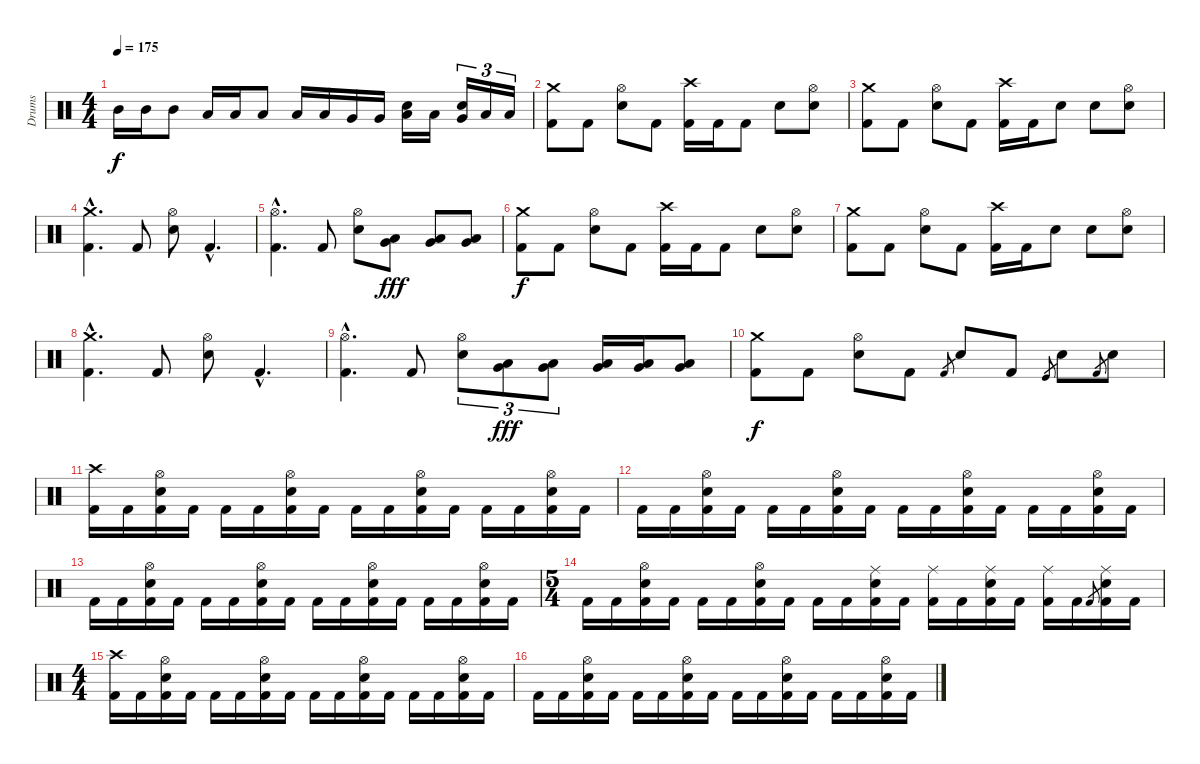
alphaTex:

\track ("Drums" "Drums") {instrument percussion}
\staff {score}
\articulation defaults
\ts (4 4)
\tempo 175
\clef neutral
\ks c "Mid Tom (hit)".16{dy f} "Mid Tom (hit)".16 "Mid Tom (hit)".8 "Low Tom (hit)".16 "Low Tom (hit)".16 "Low Tom (hit)".8 "Low Tom (hit)".16 "Low Tom (hit)".16 "Very Low Tom (hit)".16 "Very Low Tom (hit)".16
("Low Tom (hit)" "Snare (hit) 2").16 "Low Tom (hit)".16 ("Very Low Tom (hit)" "Snare (hit) 2").16{tu (3 2)} "Low Floor Tom (hit)".16{tu (3 2)} "Low Floor Tom (hit)".16{tu (3 2)} |
("Kick (hit) 2" "Crash medium (hit)").8 "Kick (hit) 2".8 ("Electric Snare (hit)" "Hi-Hat (open)").8 "Kick (hit) 2".8 ("Kick (hit) 2" "Crash high (hit)").16 "Kick (hit) 2".16 "Kick (hit) 2".8 "Electric Snare (hit)".8 ("Electric Snare (hit)" "Hi-Hat (open)").8 |
("Kick (hit) 2" "Crash medium (hit)").8 "Kick (hit) 2".8 ("Electric Snare (hit)" "Hi-Hat (open)").8 "Kick (hit) 2".8 ("Kick (hit) 2" "Crash high (hit)").16 "Kick (hit) 2".16 "Electric Snare (hit)".8 "Snare (hit) 2".8 ("Snare (hit) 2" "Hi-Hat (open)").8 |
("Kick (hit) 2"{hac} "Crash medium (hit)"{hac}).4{d} "Kick (hit) 2".8 ("Electric Snare (hit)" "Hi-Hat (open)").8 "Kick (hit) 2"{hac}.4{d} |
("Kick (hit) 2"{hac} "Hi-Hat (open)"{hac}).4{d} "Kick (hit) 2".8 ("Electric Snare (hit)" "Hi-Hat (open)").8 ("Low Tom (hit)" "Very Low Tom (hit)").8{dy fff} ("Low Tom (hit)" "Very Low Tom (hit)").8 ("Low Tom (hit)" "Very Low Tom (hit)").8 |
("Kick (hit) 2" "Crash medium (hit)").8{dy f} "Kick (hit) 2".8 ("Electric Snare (hit)" "Hi-Hat (open)").8 "Kick (hit) 2".8 ("Kick (hit) 2" "Crash high (hit)").16 "Kick (hit) 2".16 "Kick (hit) 2".8 "Electric Snare (hit)".8 ("Electric Snare (hit)" "Hi-Hat (open)").8 |
("Kick (hit) 2" "Crash medium (hit)").8 "Kick (hit) 2".8 ("Electric Snare (hit)" "Hi-Hat (open)").8 "Kick (hit) 2".8 ("Kick (hit) 2" "Crash high (hit)").16 "Kick (hit) 2".16 "Electric Snare (hit)".8 "Snare (hit) 2".8 ("Snare (hit) 2" "Hi-Hat (open)").8 |
("Kick (hit) 2"{hac} "Crash medium (hit)"{hac}).4{d} "Kick (hit) 2".8 ("Electric Snare (hit)" "Hi-Hat (open)").8 "Kick (hit) 2"{hac}.4{d} |
("Kick (hit) 2"{hac} "Hi-Hat (open)"{hac}).4{d} "Kick (hit) 2".8 ("Electric Snare (hit)" "Hi-Hat (open)").8{tu (3 2)} ("Low Tom (hit)" "Very Low Tom (hit)").8{tu (3 2) dy fff} ("Low Tom (hit)" "Very Low Tom (hit)").8{tu (3 2)} ("Low Tom (hit)" "Very Low Tom (hit)").16 ("Low Tom (hit)" "Very Low Tom (hit)").16 ("Low Tom (hit)" "Very Low Tom (hit)").8 |
("Kick (hit) 2" "Crash medium (hit)").8{dy f} "Kick (hit) 2".8 ("Electric Snare (hit)" "Hi-Hat (open)").8 "Kick (hit) 2".8 "Kick (hit) 2".8{gr} "Electric Snare (hit)".8 "Kick (hit) 2".8 "Kick (hit)".8{gr} "Snare (hit) 2".8 "Kick (hit) 2".8{gr} "Electric Snare (hit)".8 |
("Crash high (hit)" "Kick (hit) 2").16 "Kick (hit) 2".16 ("Hi-Hat (open)" "Electric Snare (hit)" "Kick (hit) 2").16 "Kick (hit) 2".16 "Kick (hit) 2".16 "Kick (hit) 2".16 ("Hi-Hat (open)" "Electric Snare (hit)" "Kick (hit) 2").16 "Kick (hit) 2".16 "Kick (hit) 2".16 "Kick (hit) 2".16 ("Hi-Hat (open)" "Electric Snare (hit)" "Kick (hit) 2").16 "Kick (hit) 2".16 "Kick (hit) 2".16 "Kick (hit) 2".16 ("Hi-Hat (open)" "Electric Snare (hit)" "Kick (hit) 2").16 "Kick (hit) 2".16 |
"Kick (hit) 2".16 "Kick (hit) 2".16 ("Hi-Hat (open)" "Electric Snare (hit)" "Kick (hit) 2").16 "Kick (hit) 2".16 "Kick (hit) 2".16 "Kick (hit) 2".16 ("Hi-Hat (open)" "Electric Snare (hit)" "Kick (hit) 2").16 "Kick (hit) 2".16 "Kick (hit) 2".16 "Kick (hit) 2".16 ("Hi-Hat (open)" "Electric Snare (hit)" "Kick (hit) 2").16 "Kick (hit) 2".16 "Kick (hit) 2".16 "Kick (hit) 2".16 ("Hi-Hat (open)" "Electric Snare (hit)" "Kick (hit) 2").16 "Kick (hit) 2".16 |
"Kick (hit) 2".16 "Kick (hit) 2".16 ("Hi-Hat (open)" "Electric Snare (hit)" "Kick (hit) 2").16 "Kick (hit) 2".16 "Kick (hit) 2".16 "Kick (hit) 2".16 ("Hi-Hat (open)" "Electric Snare (hit)" "Kick (hit) 2").16 "Kick (hit) 2".16 "Kick (hit) 2".16 "Kick (hit) 2".16 ("Hi-Hat (open)" "Electric Snare (hit)" "Kick (hit) 2").16 "Kick (hit) 2".16 "Kick (hit) 2".16 "Kick (hit) 2".16 ("Hi-Hat (open)" "Electric Snare (hit)" "Kick (hit) 2").16 "Kick (hit) 2".16 |
\ts (5 4)
"Kick (hit) 2".16 "Kick (hit) 2".16 ("Hi-Hat (open)" "Electric Snare (hit)" "Kick (hit) 2").16 "Kick (hit) 2".16 "Kick (hit) 2".16 "Kick (hit) 2".16 ("Hi-Hat (open)" "Electric Snare (hit)" "Kick (hit) 2").16 "Kick (hit) 2".16 "Kick (hit) 2".16 "Kick (hit) 2".16 ("Ride (middle)" "Electric Snare (hit)" "Kick (hit) 2").16 "Kick (hit) 2".16 ("Ride (middle)" "Kick (hit) 2").16 "Kick (hit) 2".16 ("Ride (middle)" "Electric Snare (hit)" "Kick (hit) 2").16 "Kick (hit) 2".16 ("Ride (middle)" "Kick (hit) 2").16 "Kick (hit) 2".16 "Kick (hit) 2".8{gr} ("Ride (middle)" "Electric Snare (hit)" "Kick (hit) 2").16 "Kick (hit) 2".16 |
\ts (4 4)
("Crash high (hit)" "Kick (hit) 2").16 "Kick (hit) 2".16 ("Hi-Hat (open)" "Electric Snare (hit)" "Kick (hit) 2").16 "Kick (hit) 2".16 "Kick (hit) 2".16 "Kick (hit) 2".16 ("Hi-Hat (open)" "Electric Snare (hit)" "Kick (hit) 2").16 "Kick (hit) 2".16 "Kick (hit) 2".16 "Kick (hit) 2".16 ("Hi-Hat (open)" "Electric Snare (hit)" "Kick (hit) 2").16 "Kick (hit) 2".16 "Kick (hit) 2".16 "Kick (hit) 2".16 ("Hi-Hat (open)" "Electric Snare (hit)" "Kick (hit) 2").16 "Kick (hit) 2".16 |
"Kick (hit) 2".16 "Kick (hit) 2".16 ("Hi-Hat (open)" "Electric Snare (hit)" "Kick (hit) 2").16 "Kick (hit) 2".16 "Kick (hit) 2".16 "Kick (hit) 2".16 ("Hi-Hat (open)" "Electric Snare (hit)" "Kick (hit) 2").16 "Kick (hit) 2".16 "Kick (hit) 2".16 "Kick (hit) 2".16 ("Hi-Hat (open)" "Electric Snare (hit)" "Kick (hit) 2").16 "Kick (hit) 2".16 "Kick (hit) 2".16 "Kick (hit) 2".16 ("Hi-Hat (open)" "Electric Snare (hit)" "Kick (hit) 2").16 "Kick (hit) 2".16
